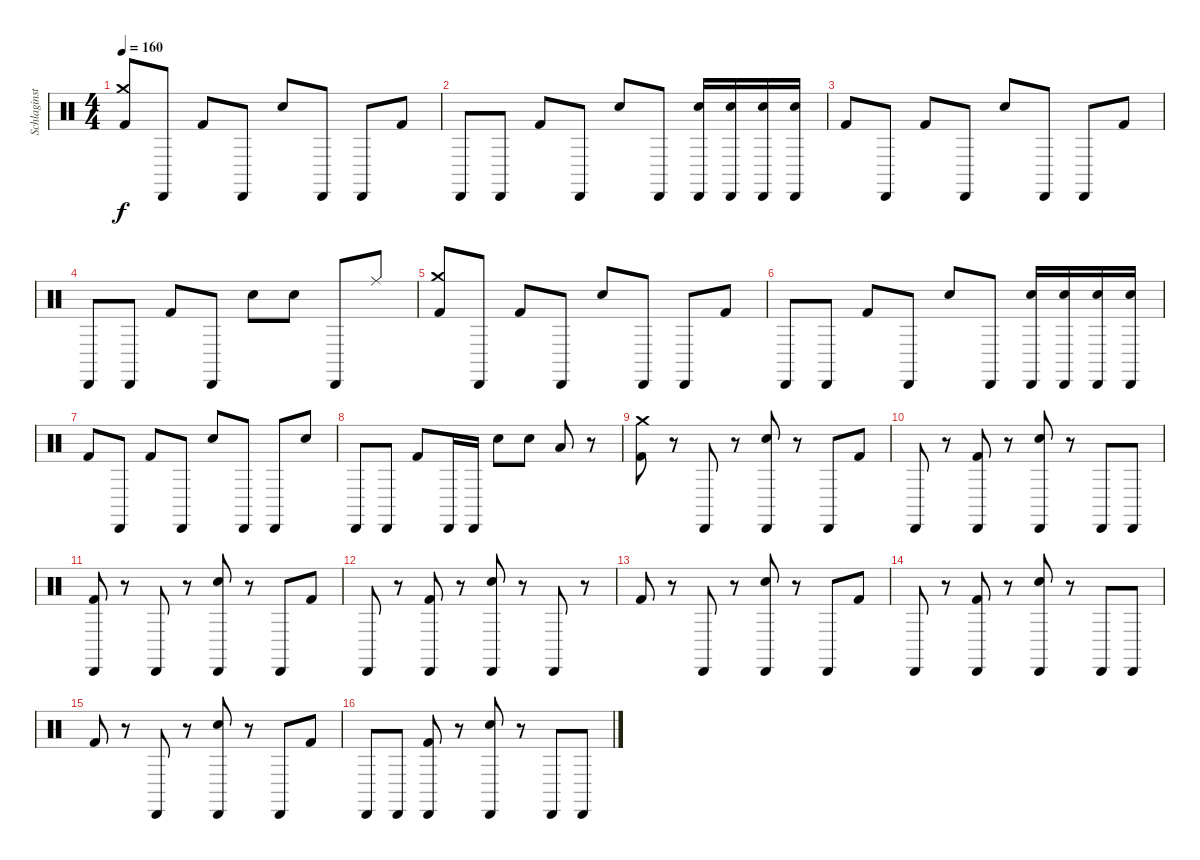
\track ("Schlaginstrumente - Auswahl" "Schlaginst") {instrument percussion}
\staff {score}
\articulation defaults
\ts (4 4)
\tempo 160
\clef neutral
\ks c
("Crash medium (hit)" "Kick (hit) 2").8{dy f} "Cabasa (hit)".8 "Kick (hit) 2".8 "Cabasa (hit)".8 "Snare (hit) 2".8 "Cabasa (hit)".8 "Cabasa (hit)".8 "Kick (hit) 2".8 |
"Cabasa (hit)".8 "Cabasa (hit)".8 "Kick (hit) 2".8 "Cabasa (hit)".8 "Snare (hit) 2".8 "Cabasa (hit)".8 ("Cabasa (hit)" "Snare (hit) 2").16 ("Cabasa (hit)" "Snare (hit) 2").16 ("Cabasa (hit)" "Snare (hit) 2").16 ("Cabasa (hit)" "Snare (hit) 2").16 |
"Kick (hit) 2".8 "Cabasa (hit)".8 "Kick (hit) 2".8 "Cabasa (hit)".8 "Snare (hit) 2".8 "Cabasa (hit)".8 "Cabasa (hit)".8 "Kick (hit) 2".8 |
"Cabasa (hit)".8 "Cabasa (hit)".8 "Kick (hit) 2".8 "Cabasa (hit)".8 "Snare (hit) 2".8 "Snare (hit) 2".8 "Cabasa (hit)".8 "Ride (middle)".8 |
("Crash medium (hit)" "Kick (hit) 2").8 "Cabasa (hit)".8 "Kick (hit) 2".8 "Cabasa (hit)".8 "Snare (hit) 2".8 "Cabasa (hit)".8 "Cabasa (hit)".8 "Kick (hit) 2".8 |
"Cabasa (hit)".8 "Cabasa (hit)".8 "Kick (hit) 2".8 "Cabasa (hit)".8 "Snare (hit) 2".8 "Cabasa (hit)".8 ("Cabasa (hit)" "Snare (hit) 2").16 ("Cabasa (hit)" "Snare (hit) 2").16 ("Cabasa (hit)" "Snare (hit) 2").16 ("Cabasa (hit)" "Snare (hit) 2").16 |
"Kick (hit) 2".8 "Cabasa (hit)".8 "Kick (hit) 2".8 "Cabasa (hit)".8 "Snare (hit) 2".8 "Cabasa (hit)".8 "Cabasa (hit)".8 "Snare (hit) 2".8 |
"Cabasa (hit)".8 "Cabasa (hit)".8 "Kick (hit) 2".8 "Cabasa (hit)".16 "Cabasa (hit)".16 "Snare (hit) 2".8 "Snare (hit) 2".8 "Low Tom (hit)".8 r.8 |
("Crash medium (hit)" "Kick (hit) 2").8 r.8 "Cabasa (hit)".8 r.8 ("Cabasa (hit)" "Snare (hit) 2").8 r.8 "Cabasa (hit)".8 "Kick (hit) 2".8 |
"Cabasa (hit)".8 r.8 ("Cabasa (hit)" "Kick (hit) 2").8 r.8 ("Cabasa (hit)" "Snare (hit) 2").8 r.8 "Cabasa (hit)".8 "Cabasa (hit)".8 |
("Cabasa (hit)" "Kick (hit) 2").8 r.8 "Cabasa (hit)".8 r.8 ("Cabasa (hit)" "Snare (hit) 2").8 r.8 "Cabasa (hit)".8 "Kick (hit) 2".8 |
"Cabasa (hit)".8 r.8 ("Cabasa (hit)" "Kick (hit) 2").8 r.8 ("Cabasa (hit)" "Snare (hit) 2").8 r.8 "Cabasa (hit)".8 r.8 |
"Kick (hit) 2".8 r.8 "Cabasa (hit)".8 r.8 ("Cabasa (hit)" "Snare (hit) 2").8 r.8 "Cabasa (hit)".8 "Kick (hit) 2".8 |
"Cabasa (hit)".8 r.8 ("Cabasa (hit)" "Kick (hit) 2").8 r.8 ("Cabasa (hit)" "Snare (hit) 2").8 r.8 "Cabasa (hit)".8 "Cabasa (hit)".8 |
"Kick (hit) 2".8 r.8 "Cabasa (hit)".8 r.8 ("Cabasa (hit)" "Snare (hit) 2").8 r.8 "Cabasa (hit)".8 "Kick (hit) 2".8 |
"Cabasa (hit)".8 "Cabasa (hit)".8 ("Cabasa (hit)" "Kick (hit) 2").8 r.8 ("Cabasa (hit)" "Snare (hit) 2").8 r.8 "Cabasa (hit)".8 "Cabasa (hit)".8
